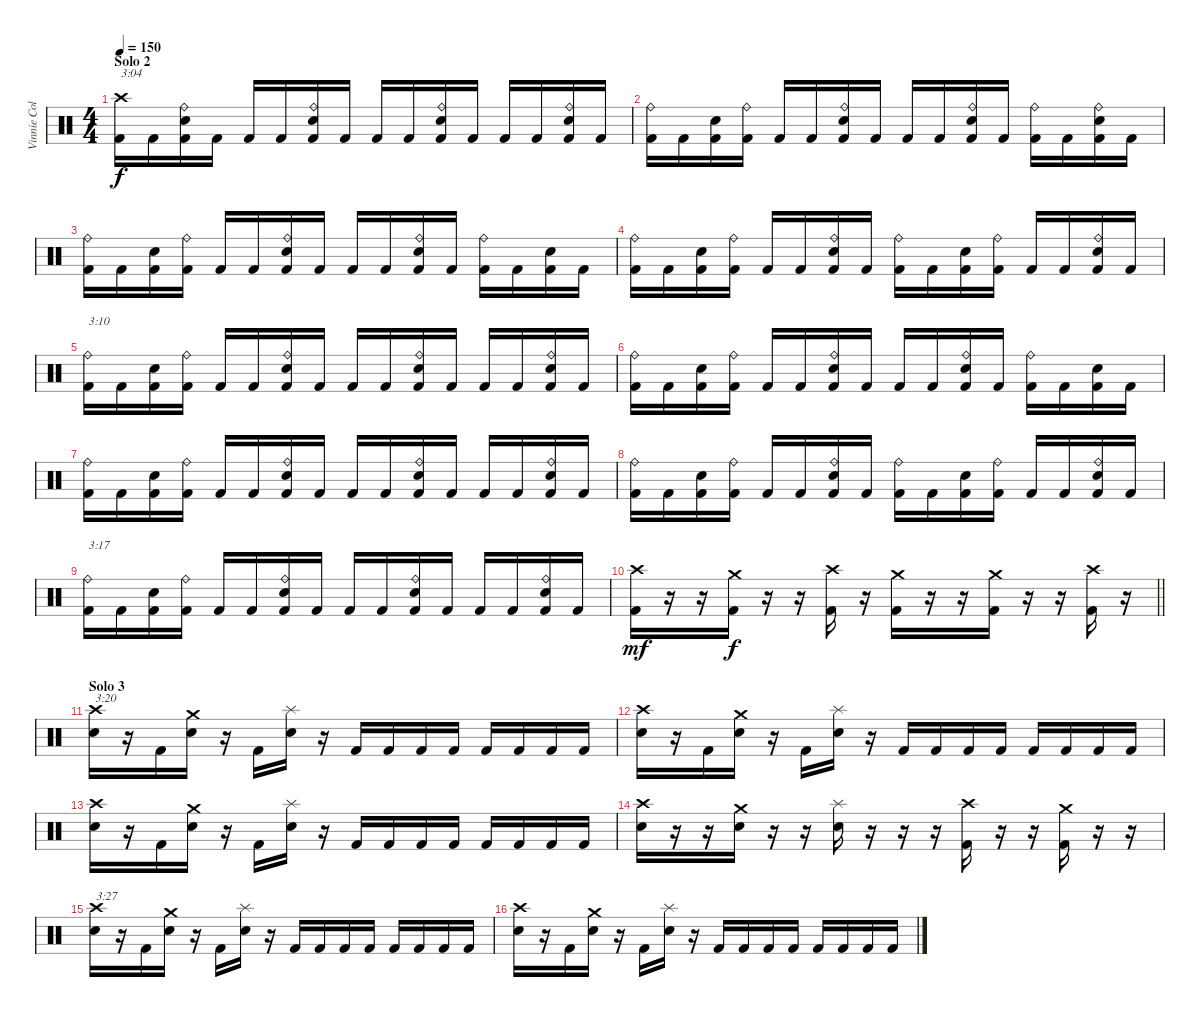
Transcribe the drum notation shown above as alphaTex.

\track ("Vinnie Colaiuta" "Vinnie Col") {instrument percussion}
\staff {score}
\articulation defaults
\ts (4 4)
\section ("" "Solo 2")
\tempo 150
\clef neutral
\ks c
("Crash high (hit)" "Kick (hit) 2").16{txt "3:04" dy f} "Kick (hit) 2".16 ("Ride (bell)" "Electric Snare (hit)" "Kick (hit) 2").16 "Kick (hit) 2".16 "Kick (hit) 2".16 "Kick (hit) 2".16 ("Ride (bell)" "Electric Snare (hit)" "Kick (hit) 2").16 "Kick (hit) 2".16 "Kick (hit) 2".16 "Kick (hit) 2".16 ("Ride (bell)" "Electric Snare (hit)" "Kick (hit) 2").16 "Kick (hit) 2".16 "Kick (hit) 2".16 "Kick (hit) 2".16 ("Ride (bell)" "Electric Snare (hit)" "Kick (hit) 2").16 "Kick (hit) 2".16 |
("Ride (bell)" "Kick (hit) 2").16 "Kick (hit) 2".16 ("Electric Snare (hit)" "Kick (hit) 2").16 ("Ride (bell)" "Kick (hit) 2").16 "Kick (hit) 2".16 "Kick (hit) 2".16 ("Ride (bell)" "Electric Snare (hit)" "Kick (hit) 2").16 "Kick (hit) 2".16 "Kick (hit) 2".16 "Kick (hit) 2".16 ("Ride (bell)" "Electric Snare (hit)" "Kick (hit) 2").16 "Kick (hit) 2".16 ("Ride (bell)" "Kick (hit) 2").16 "Kick (hit) 2".16 ("Ride (bell)" "Electric Snare (hit)" "Kick (hit) 2").16 "Kick (hit) 2".16 |
("Ride (bell)" "Kick (hit) 2").16 "Kick (hit) 2".16 ("Electric Snare (hit)" "Kick (hit) 2").16 ("Ride (bell)" "Kick (hit) 2").16 "Kick (hit) 2".16 "Kick (hit) 2".16 ("Ride (bell)" "Electric Snare (hit)" "Kick (hit) 2").16 "Kick (hit) 2".16 "Kick (hit) 2".16 "Kick (hit) 2".16 ("Ride (bell)" "Electric Snare (hit)" "Kick (hit) 2").16 "Kick (hit) 2".16 ("Ride (bell)" "Kick (hit) 2").16 "Kick (hit) 2".16 ("Electric Snare (hit)" "Kick (hit) 2").16 "Kick (hit) 2".16 |
("Ride (bell)" "Kick (hit) 2").16 "Kick (hit) 2".16 ("Electric Snare (hit)" "Kick (hit) 2").16 ("Ride (bell)" "Kick (hit) 2").16 "Kick (hit) 2".16 "Kick (hit) 2".16 ("Ride (bell)" "Electric Snare (hit)" "Kick (hit) 2").16 "Kick (hit) 2".16 ("Ride (bell)" "Kick (hit) 2").16 "Kick (hit) 2".16 ("Electric Snare (hit)" "Kick (hit) 2").16 ("Ride (bell)" "Kick (hit) 2").16 "Kick (hit) 2".16 "Kick (hit) 2".16 ("Ride (bell)" "Electric Snare (hit)" "Kick (hit) 2").16 "Kick (hit) 2".16 |
("Ride (bell)" "Kick (hit) 2").16{txt "3:10"} "Kick (hit) 2".16 ("Electric Snare (hit)" "Kick (hit) 2").16 ("Ride (bell)" "Kick (hit) 2").16 "Kick (hit) 2".16 "Kick (hit) 2".16 ("Ride (bell)" "Electric Snare (hit)" "Kick (hit) 2").16 "Kick (hit) 2".16 "Kick (hit) 2".16 "Kick (hit) 2".16 ("Ride (bell)" "Electric Snare (hit)" "Kick (hit) 2").16 "Kick (hit) 2".16 "Kick (hit) 2".16 "Kick (hit) 2".16 ("Ride (bell)" "Electric Snare (hit)" "Kick (hit) 2").16 "Kick (hit) 2".16 |
("Ride (bell)" "Kick (hit) 2").16 "Kick (hit) 2".16 ("Electric Snare (hit)" "Kick (hit) 2").16 ("Ride (bell)" "Kick (hit) 2").16 "Kick (hit) 2".16 "Kick (hit) 2".16 ("Ride (bell)" "Electric Snare (hit)" "Kick (hit) 2").16 "Kick (hit) 2".16 "Kick (hit) 2".16 "Kick (hit) 2".16 ("Ride (bell)" "Electric Snare (hit)" "Kick (hit) 2").16 "Kick (hit) 2".16 ("Ride (bell)" "Kick (hit) 2").16 "Kick (hit) 2".16 ("Electric Snare (hit)" "Kick (hit) 2").16 "Kick (hit) 2".16 |
("Ride (bell)" "Kick (hit) 2").16 "Kick (hit) 2".16 ("Electric Snare (hit)" "Kick (hit) 2").16 ("Ride (bell)" "Kick (hit) 2").16 "Kick (hit) 2".16 "Kick (hit) 2".16 ("Ride (bell)" "Electric Snare (hit)" "Kick (hit) 2").16 "Kick (hit) 2".16 "Kick (hit) 2".16 "Kick (hit) 2".16 ("Ride (bell)" "Electric Snare (hit)" "Kick (hit) 2").16 "Kick (hit) 2".16 "Kick (hit) 2".16 "Kick (hit) 2".16 ("Ride (bell)" "Electric Snare (hit)" "Kick (hit) 2").16 "Kick (hit) 2".16 |
("Ride (bell)" "Kick (hit) 2").16 "Kick (hit) 2".16 ("Electric Snare (hit)" "Kick (hit) 2").16 ("Ride (bell)" "Kick (hit) 2").16 "Kick (hit) 2".16 "Kick (hit) 2".16 ("Ride (bell)" "Electric Snare (hit)" "Kick (hit) 2").16 "Kick (hit) 2".16 ("Ride (bell)" "Kick (hit) 2").16 "Kick (hit) 2".16 ("Electric Snare (hit)" "Kick (hit) 2").16 ("Ride (bell)" "Kick (hit) 2").16 "Kick (hit) 2".16 "Kick (hit) 2".16 ("Ride (bell)" "Electric Snare (hit)" "Kick (hit) 2").16 "Kick (hit) 2".16 |
("Ride (bell)" "Kick (hit) 2").16{txt "3:17"} "Kick (hit) 2".16 ("Electric Snare (hit)" "Kick (hit) 2").16 ("Ride (bell)" "Kick (hit) 2").16 "Kick (hit) 2".16 "Kick (hit) 2".16 ("Ride (bell)" "Electric Snare (hit)" "Kick (hit) 2").16 "Kick (hit) 2".16 "Kick (hit) 2".16 "Kick (hit) 2".16 ("Ride (bell)" "Electric Snare (hit)" "Kick (hit) 2").16 "Kick (hit) 2".16 "Kick (hit) 2".16 "Kick (hit) 2".16 ("Ride (bell)" "Electric Snare (hit)" "Kick (hit) 2").16 "Kick (hit) 2".16 |
\barLineRight lightlight
("Crash high (hit)" "Kick (hit) 2").16{dy mf} r.16 r.16 ("Crash medium (hit)" "Kick (hit) 2").16{dy f} r.16 r.16 ("Crash high (hit)" "Kick (hit) 2").16 r.16 ("Crash medium (hit)" "Kick (hit) 2").16 r.16 r.16 ("Crash medium (hit)" "Kick (hit) 2").16 r.16 r.16 ("Crash high (hit)" "Kick (hit) 2").16 r.16 |
\section ("" "Solo 3")
("Crash high (hit)" "Snare (hit) 2").16{txt "3:20"} r.16 "Kick (hit) 2".16 ("Crash medium (hit)" "Snare (hit) 2").16 r.16 "Kick (hit) 2".16 ("Splash (hit)" "Snare (hit) 2").16 r.16 "Kick (hit) 2".16 "Kick (hit) 2".16 "Kick (hit) 2".16 "Kick (hit) 2".16 "Kick (hit) 2".16 "Kick (hit) 2".16 "Kick (hit) 2".16 "Kick (hit) 2".16 |
("Crash high (hit)" "Snare (hit) 2").16 r.16 "Kick (hit) 2".16 ("Crash medium (hit)" "Snare (hit) 2").16 r.16 "Kick (hit) 2".16 ("Splash (hit)" "Snare (hit) 2").16 r.16 "Kick (hit) 2".16 "Kick (hit) 2".16 "Kick (hit) 2".16 "Kick (hit) 2".16 "Kick (hit) 2".16 "Kick (hit) 2".16 "Kick (hit) 2".16 "Kick (hit) 2".16 |
("Crash high (hit)" "Snare (hit) 2").16 r.16 "Kick (hit) 2".16 ("Crash medium (hit)" "Snare (hit) 2").16 r.16 "Kick (hit) 2".16 ("Splash (hit)" "Snare (hit) 2").16 r.16 "Kick (hit) 2".16 "Kick (hit) 2".16 "Kick (hit) 2".16 "Kick (hit) 2".16 "Kick (hit) 2".16 "Kick (hit) 2".16 "Kick (hit) 2".16 "Kick (hit) 2".16 |
("Crash high (hit)" "Snare (hit) 2").16 r.16 r.16 ("Crash medium (hit)" "Snare (hit) 2").16 r.16 r.16 ("Splash (hit)" "Snare (hit) 2").16 r.16 r.16 r.16 ("Crash high (hit)" "Kick (hit) 2").16 r.16 r.16 ("Crash medium (hit)" "Kick (hit) 2").16 r.16 r.16 |
("Crash high (hit)" "Snare (hit) 2").16{txt "3:27"} r.16 "Kick (hit) 2".16 ("Crash medium (hit)" "Snare (hit) 2").16 r.16 "Kick (hit) 2".16 ("Splash (hit)" "Snare (hit) 2").16 r.16 "Kick (hit) 2".16 "Kick (hit) 2".16 "Kick (hit) 2".16 "Kick (hit) 2".16 "Kick (hit) 2".16 "Kick (hit) 2".16 "Kick (hit) 2".16 "Kick (hit) 2".16 |
("Crash high (hit)" "Snare (hit) 2").16 r.16 "Kick (hit) 2".16 ("Crash medium (hit)" "Snare (hit) 2").16 r.16 "Kick (hit) 2".16 ("Splash (hit)" "Snare (hit) 2").16 r.16 "Kick (hit) 2".16 "Kick (hit) 2".16 "Kick (hit) 2".16 "Kick (hit) 2".16 "Kick (hit) 2".16 "Kick (hit) 2".16 "Kick (hit) 2".16 "Kick (hit) 2".16
